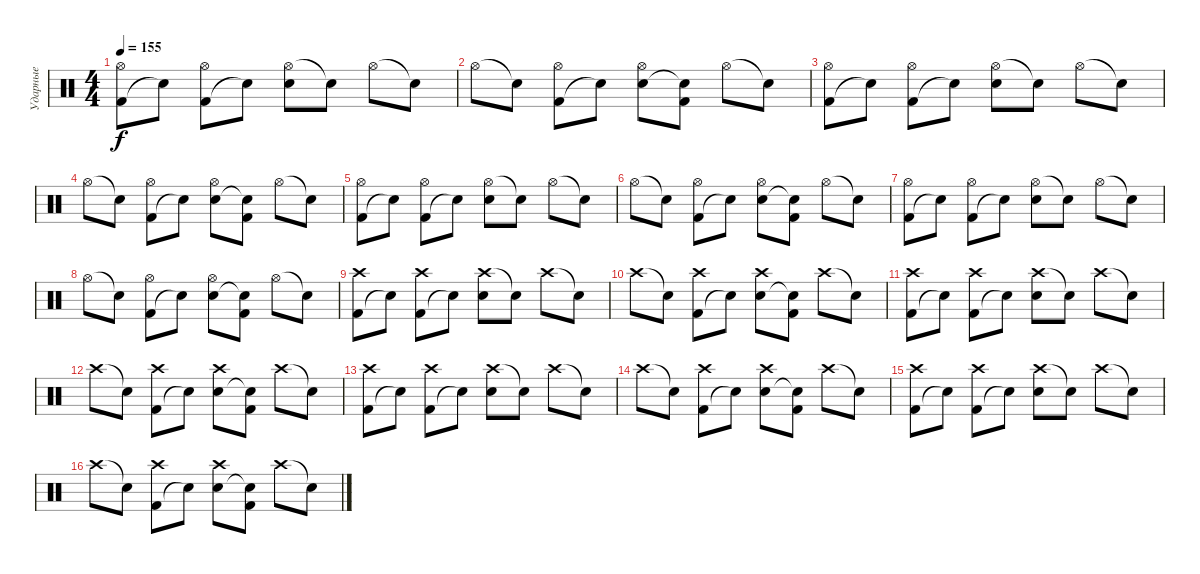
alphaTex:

\track ("Ударные" "Ударные") {instrument percussion}
\staff {score}
\articulation defaults
\ts (4 4)
\tempo 155
\clef neutral
\ks c
("Kick (hit) 2" "Hi-Hat (open)").8{dy f} "Snare (hit)"{t}.8 ("Kick (hit) 2" "Hi-Hat (open)").8 "Snare (hit)"{t}.8 ("Hi-Hat (open)" "Snare (hit) 2").8 "Snare (hit)"{t}.8 "Hi-Hat (open)".8 "Snare (hit)"{t}.8 |
"Hi-Hat (open)".8 "Snare (hit)"{t}.8 ("Kick (hit) 2" "Hi-Hat (open)").8 "Snare (hit)"{t}.8 ("Hi-Hat (open)" "Snare (hit) 2").8 ("Kick (hit) 2" "Snare (hit)"{t}).8 "Hi-Hat (open)".8 "Snare (hit)"{t}.8 |
("Kick (hit) 2" "Hi-Hat (open)").8 "Snare (hit)"{t}.8 ("Kick (hit) 2" "Hi-Hat (open)").8 "Snare (hit)"{t}.8 ("Hi-Hat (open)" "Snare (hit) 2").8 "Snare (hit)"{t}.8 "Hi-Hat (open)".8 "Snare (hit)"{t}.8 |
"Hi-Hat (open)".8 "Snare (hit)"{t}.8 ("Kick (hit) 2" "Hi-Hat (open)").8 "Snare (hit)"{t}.8 ("Hi-Hat (open)" "Snare (hit) 2").8 ("Kick (hit) 2" "Snare (hit)"{t}).8 "Hi-Hat (open)".8 "Snare (hit)"{t}.8 |
("Kick (hit) 2" "Hi-Hat (open)").8 "Snare (hit)"{t}.8 ("Kick (hit) 2" "Hi-Hat (open)").8 "Snare (hit)"{t}.8 ("Hi-Hat (open)" "Snare (hit) 2").8 "Snare (hit)"{t}.8 "Hi-Hat (open)".8 "Snare (hit)"{t}.8 |
"Hi-Hat (open)".8 "Snare (hit)"{t}.8 ("Kick (hit) 2" "Hi-Hat (open)").8 "Snare (hit)"{t}.8 ("Hi-Hat (open)" "Snare (hit) 2").8 ("Kick (hit) 2" "Snare (hit)"{t}).8 "Hi-Hat (open)".8 "Snare (hit)"{t}.8 |
("Kick (hit) 2" "Hi-Hat (open)").8 "Snare (hit)"{t}.8 ("Kick (hit) 2" "Hi-Hat (open)").8 "Snare (hit)"{t}.8 ("Hi-Hat (open)" "Snare (hit) 2").8 "Snare (hit)"{t}.8 "Hi-Hat (open)".8 "Snare (hit)"{t}.8 |
"Hi-Hat (open)".8 "Snare (hit)"{t}.8 ("Kick (hit) 2" "Hi-Hat (open)").8 "Snare (hit)"{t}.8 ("Hi-Hat (open)" "Snare (hit) 2").8 ("Kick (hit) 2" "Snare (hit)"{t}).8 "Hi-Hat (open)".8 "Snare (hit)"{t}.8 |
("Kick (hit) 2" "Crash high (hit)").8 "Snare (hit)"{t}.8 ("Kick (hit) 2" "Crash high (hit)").8 "Snare (hit)"{t}.8 ("Crash high (hit)" "Snare (hit) 2").8 "Snare (hit)"{t}.8 "Crash high (hit)".8 "Snare (hit)"{t}.8 |
"Crash high (hit)".8 "Snare (hit)"{t}.8 ("Kick (hit) 2" "Crash high (hit)").8 "Snare (hit)"{t}.8 ("Crash high (hit)" "Snare (hit) 2").8 ("Kick (hit) 2" "Snare (hit)"{t}).8 "Crash high (hit)".8 "Snare (hit)"{t}.8 |
("Kick (hit) 2" "Crash high (hit)").8 "Snare (hit)"{t}.8 ("Kick (hit) 2" "Crash high (hit)").8 "Snare (hit)"{t}.8 ("Crash high (hit)" "Snare (hit) 2").8 "Snare (hit)"{t}.8 "Crash high (hit)".8 "Snare (hit)"{t}.8 |
"Crash high (hit)".8 "Snare (hit)"{t}.8 ("Kick (hit) 2" "Crash high (hit)").8 "Snare (hit)"{t}.8 ("Crash high (hit)" "Snare (hit) 2").8 ("Kick (hit) 2" "Snare (hit)"{t}).8 "Crash high (hit)".8 "Snare (hit)"{t}.8 |
("Kick (hit) 2" "Crash high (hit)").8 "Snare (hit)"{t}.8 ("Kick (hit) 2" "Crash high (hit)").8 "Snare (hit)"{t}.8 ("Crash high (hit)" "Snare (hit) 2").8 "Snare (hit)"{t}.8 "Crash high (hit)".8 "Snare (hit)"{t}.8 |
"Crash high (hit)".8 "Snare (hit)"{t}.8 ("Kick (hit) 2" "Crash high (hit)").8 "Snare (hit)"{t}.8 ("Crash high (hit)" "Snare (hit) 2").8 ("Kick (hit) 2" "Snare (hit)"{t}).8 "Crash high (hit)".8 "Snare (hit)"{t}.8 |
("Kick (hit) 2" "Crash high (hit)").8 "Snare (hit)"{t}.8 ("Kick (hit) 2" "Crash high (hit)").8 "Snare (hit)"{t}.8 ("Crash high (hit)" "Snare (hit) 2").8 "Snare (hit)"{t}.8 "Crash high (hit)".8 "Snare (hit)"{t}.8 |
"Crash high (hit)".8 "Snare (hit)"{t}.8 ("Kick (hit) 2" "Crash high (hit)").8 "Snare (hit)"{t}.8 ("Crash high (hit)" "Snare (hit) 2").8 ("Kick (hit) 2" "Snare (hit)"{t}).8 "Crash high (hit)".8 "Snare (hit)"{t}.8
